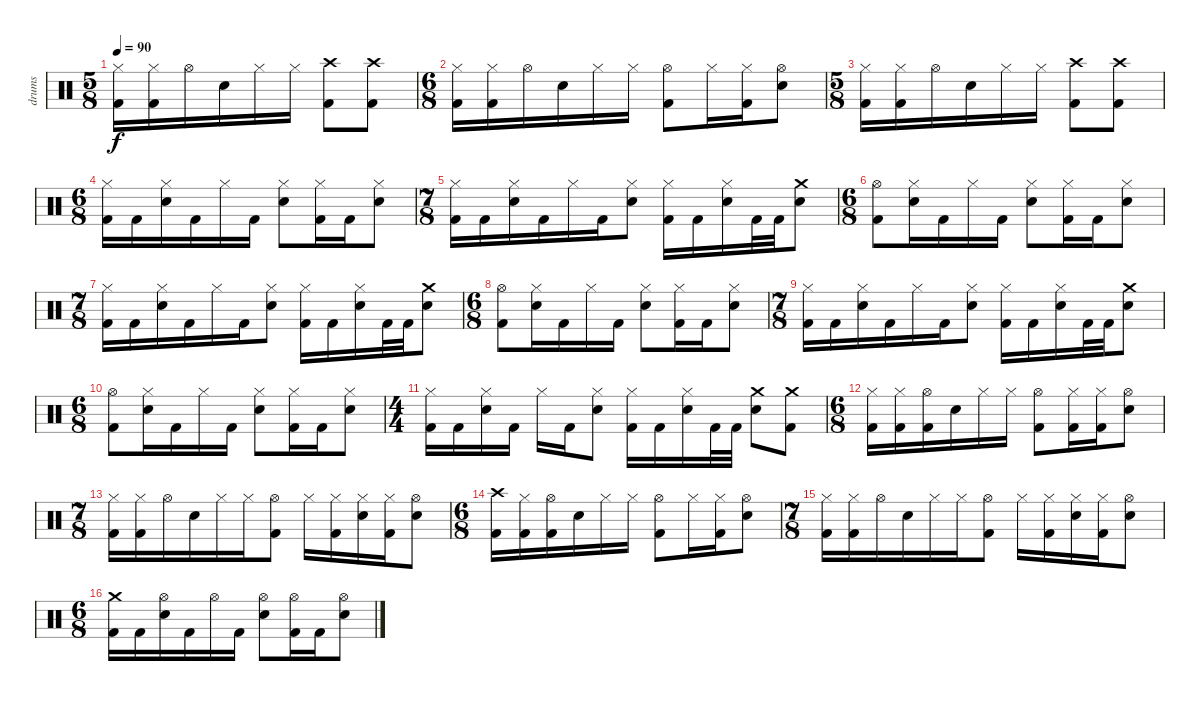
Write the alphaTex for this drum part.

\track ("drums" "drums") {instrument percussion}
\staff {score}
\articulation defaults
\ts (5 8)
\tempo 90
\clef neutral
\ks c
("Hi-Hat (closed)" "Kick (hit) 2").16{dy f} ("Hi-Hat (closed)" "Kick (hit) 2").16 "Hi-Hat (open)".16 "Electric Snare (hit)".16 "Hi-Hat (closed)".16 "Hi-Hat (closed)".16 ("Crash high (hit)" "Kick (hit) 2").8 ("Crash high (hit)" "Kick (hit) 2").8 |
\ts (6 8)
("Hi-Hat (closed)" "Kick (hit) 2").16 ("Hi-Hat (closed)" "Kick (hit) 2").16 "Hi-Hat (open)".16 "Electric Snare (hit)".16 "Hi-Hat (closed)".16 "Hi-Hat (closed)".16 ("Hi-Hat (open)" "Kick (hit) 2").8 "Hi-Hat (closed)".16 ("Hi-Hat (closed)" "Kick (hit) 2").16 ("Hi-Hat (open)" "Electric Snare (hit)").8 |
\ts (5 8)
("Hi-Hat (closed)" "Kick (hit) 2").16 ("Hi-Hat (closed)" "Kick (hit) 2").16 "Hi-Hat (open)".16 "Electric Snare (hit)".16 "Hi-Hat (closed)".16 "Hi-Hat (closed)".16 ("Crash high (hit)" "Kick (hit) 2").8 ("Crash high (hit)" "Kick (hit) 2").8 |
\ts (6 8)
("Hi-Hat (closed)" "Kick (hit) 2").16 "Kick (hit) 2".16 ("Hi-Hat (closed)" "Electric Snare (hit)").16 "Kick (hit) 2".16 "Hi-Hat (closed)".16 "Kick (hit) 2".16 ("Hi-Hat (closed)" "Electric Snare (hit)").8 ("Hi-Hat (closed)" "Kick (hit) 2").16 "Kick (hit) 2".16 ("Hi-Hat (closed)" "Electric Snare (hit)").8 |
\ts (7 8)
("Hi-Hat (closed)" "Kick (hit) 2").16 "Kick (hit) 2".16 ("Hi-Hat (closed)" "Electric Snare (hit)").16 "Kick (hit) 2".16 "Hi-Hat (closed)".16 "Kick (hit) 2".16 ("Hi-Hat (closed)" "Electric Snare (hit)").8 ("Hi-Hat (closed)" "Kick (hit) 2").16 "Kick (hit) 2".16 ("Hi-Hat (closed)" "Electric Snare (hit)").16 "Kick (hit) 2".32 "Kick (hit) 2".32 ("Crash medium (hit)" "Electric Snare (hit)").8 |
\ts (6 8)
("Hi-Hat (open)" "Kick (hit) 2").8 ("Hi-Hat (closed)" "Electric Snare (hit)").16 "Kick (hit) 2".16 "Hi-Hat (closed)".16 "Kick (hit) 2".16 ("Hi-Hat (closed)" "Electric Snare (hit)").8 ("Hi-Hat (closed)" "Kick (hit) 2").16 "Kick (hit) 2".16 ("Hi-Hat (closed)" "Electric Snare (hit)").8 |
\ts (7 8)
("Hi-Hat (closed)" "Kick (hit) 2").16 "Kick (hit) 2".16 ("Hi-Hat (closed)" "Electric Snare (hit)").16 "Kick (hit) 2".16 "Hi-Hat (closed)".16 "Kick (hit) 2".16 ("Hi-Hat (closed)" "Electric Snare (hit)").8 ("Hi-Hat (closed)" "Kick (hit) 2").16 "Kick (hit) 2".16 ("Hi-Hat (closed)" "Electric Snare (hit)").16 "Kick (hit) 2".32 "Kick (hit) 2".32 ("Crash medium (hit)" "Electric Snare (hit)").8 |
\ts (6 8)
("Hi-Hat (open)" "Kick (hit) 2").8 ("Hi-Hat (closed)" "Electric Snare (hit)").16 "Kick (hit) 2".16 "Hi-Hat (closed)".16 "Kick (hit) 2".16 ("Hi-Hat (closed)" "Electric Snare (hit)").8 ("Hi-Hat (closed)" "Kick (hit) 2").16 "Kick (hit) 2".16 ("Hi-Hat (closed)" "Electric Snare (hit)").8 |
\ts (7 8)
("Hi-Hat (closed)" "Kick (hit) 2").16 "Kick (hit) 2".16 ("Hi-Hat (closed)" "Electric Snare (hit)").16 "Kick (hit) 2".16 "Hi-Hat (closed)".16 "Kick (hit) 2".16 ("Hi-Hat (closed)" "Electric Snare (hit)").8 ("Hi-Hat (closed)" "Kick (hit) 2").16 "Kick (hit) 2".16 ("Hi-Hat (closed)" "Electric Snare (hit)").16 "Kick (hit) 2".32 "Kick (hit) 2".32 ("Crash medium (hit)" "Electric Snare (hit)").8 |
\ts (6 8)
("Hi-Hat (open)" "Kick (hit) 2").8 ("Hi-Hat (closed)" "Electric Snare (hit)").16 "Kick (hit) 2".16 "Hi-Hat (closed)".16 "Kick (hit) 2".16 ("Hi-Hat (closed)" "Electric Snare (hit)").8 ("Hi-Hat (closed)" "Kick (hit) 2").16 "Kick (hit) 2".16 ("Hi-Hat (closed)" "Electric Snare (hit)").8 |
\ts (4 4)
("Hi-Hat (closed)" "Kick (hit) 2").16 "Kick (hit) 2".16 ("Hi-Hat (closed)" "Electric Snare (hit)").16 "Kick (hit) 2".16 "Hi-Hat (closed)".16 "Kick (hit) 2".16 ("Hi-Hat (closed)" "Electric Snare (hit)").8 ("Hi-Hat (closed)" "Kick (hit) 2").16 "Kick (hit) 2".16 ("Hi-Hat (closed)" "Electric Snare (hit)").16 "Kick (hit) 2".32 "Kick (hit) 2".32 ("Crash medium (hit)" "Electric Snare (hit)").8 ("Crash medium (hit)" "Kick (hit) 2").8 |
\ts (6 8)
("Hi-Hat (closed)" "Kick (hit) 2").16 ("Hi-Hat (closed)" "Kick (hit) 2").16 ("Hi-Hat (open)" "Kick (hit) 2").16 "Electric Snare (hit)".16 "Hi-Hat (closed)".16 "Hi-Hat (closed)".16 ("Hi-Hat (open)" "Kick (hit) 2").8 ("Hi-Hat (closed)" "Kick (hit) 2").16 ("Hi-Hat (closed)" "Kick (hit) 2").16 ("Hi-Hat (open)" "Electric Snare (hit)").8 |
\ts (7 8)
("Hi-Hat (closed)" "Kick (hit) 2").16 ("Hi-Hat (closed)" "Kick (hit) 2").16 "Hi-Hat (open)".16 "Electric Snare (hit)".16 "Hi-Hat (closed)".16 "Hi-Hat (closed)".16 ("Hi-Hat (open)" "Kick (hit) 2").8 "Hi-Hat (closed)".16 ("Hi-Hat (closed)" "Kick (hit) 2").16 ("Hi-Hat (closed)" "Electric Snare (hit)").16 ("Hi-Hat (closed)" "Kick (hit) 2").16 ("Hi-Hat (open)" "Electric Snare (hit)").8 |
\ts (6 8)
("Crash high (hit)" "Kick (hit) 2").16 ("Hi-Hat (closed)" "Kick (hit) 2").16 ("Hi-Hat (open)" "Kick (hit) 2").16 "Electric Snare (hit)".16 "Hi-Hat (closed)".16 "Hi-Hat (closed)".16 ("Hi-Hat (open)" "Kick (hit) 2").8 "Hi-Hat (closed)".16 ("Hi-Hat (closed)" "Kick (hit) 2").16 ("Hi-Hat (open)" "Electric Snare (hit)").8 |
\ts (7 8)
("Hi-Hat (closed)" "Kick (hit) 2").16 ("Hi-Hat (closed)" "Kick (hit) 2").16 "Hi-Hat (open)".16 "Electric Snare (hit)".16 "Hi-Hat (closed)".16 "Hi-Hat (closed)".16 ("Hi-Hat (open)" "Kick (hit) 2").8 "Hi-Hat (closed)".16 ("Hi-Hat (closed)" "Kick (hit) 2").16 ("Hi-Hat (closed)" "Electric Snare (hit)").16 ("Hi-Hat (closed)" "Kick (hit) 2").16 ("Hi-Hat (open)" "Electric Snare (hit)").8 |
\ts (6 8)
("Crash medium (hit)" "Kick (hit) 2").16 "Kick (hit) 2".16 ("Hi-Hat (open)" "Electric Snare (hit)").16 "Kick (hit) 2".16 "Hi-Hat (open)".16 "Kick (hit) 2".16 ("Hi-Hat (open)" "Electric Snare (hit)").8 ("Hi-Hat (open)" "Kick (hit) 2").16 "Kick (hit) 2".16 ("Hi-Hat (open)" "Electric Snare (hit)").8
